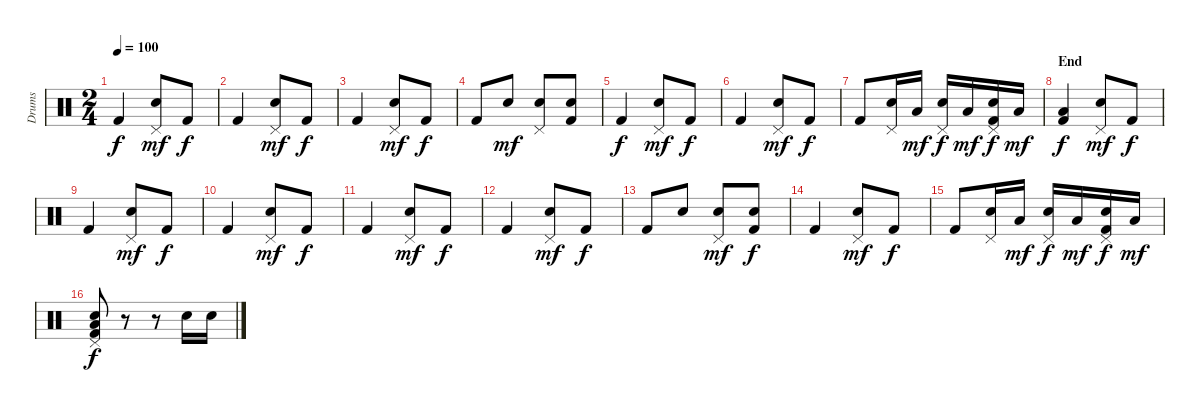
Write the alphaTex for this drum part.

\track ("Drums" "Drums") {instrument percussion}
\staff {score}
\articulation defaults
\ts (2 4)
\tempo 100
\clef neutral
\ks c "Kick (hit) 2".4{dy f}
("Pedal Hi-Hat (hit)" "Electric Snare (hit)").8{dy mf} "Kick (hit) 2".8{dy f} |
"Kick (hit) 2".4 ("Pedal Hi-Hat (hit)" "Electric Snare (hit)").8{dy mf} "Kick (hit) 2".8{dy f} |
"Kick (hit) 2".4 ("Pedal Hi-Hat (hit)" "Electric Snare (hit)").8{dy mf} "Kick (hit) 2".8{dy f} |
"Kick (hit) 2".8 "Electric Snare (hit)".8{dy mf} ("Pedal Hi-Hat (hit)" "Electric Snare (hit)").8 ("Electric Snare (hit)" "Kick (hit) 2").8 |
"Kick (hit) 2".4{dy f} ("Pedal Hi-Hat (hit)" "Electric Snare (hit)").8{dy mf} "Kick (hit) 2".8{dy f} |
"Kick (hit) 2".4 ("Pedal Hi-Hat (hit)" "Electric Snare (hit)").8{dy mf} "Kick (hit) 2".8{dy f} |
"Kick (hit) 2".8 ("Pedal Hi-Hat (hit)" "Electric Snare (hit)").16 "Low Floor Tom (hit)".16{dy mf} ("Pedal Hi-Hat (hit)" "Electric Snare (hit)").16{dy f} "Low Floor Tom (hit)".16{dy mf} ("Pedal Hi-Hat (hit)" "Electric Snare (hit)" "Kick (hit) 2").16{dy f} "Low Floor Tom (hit)".16{dy mf} |
\section ("" "End")
("Low Floor Tom (hit)" "Kick (hit) 2").4{dy f} ("Pedal Hi-Hat (hit)" "Electric Snare (hit)").8{dy mf} "Kick (hit) 2".8{dy f} |
"Kick (hit) 2".4 ("Pedal Hi-Hat (hit)" "Electric Snare (hit)").8{dy mf} "Kick (hit) 2".8{dy f} |
"Kick (hit) 2".4 ("Pedal Hi-Hat (hit)" "Electric Snare (hit)").8{dy mf} "Kick (hit) 2".8{dy f} |
"Kick (hit) 2".4 ("Pedal Hi-Hat (hit)" "Electric Snare (hit)").8{dy mf} "Kick (hit) 2".8{dy f} |
"Kick (hit) 2".4 ("Pedal Hi-Hat (hit)" "Electric Snare (hit)").8{dy mf} "Kick (hit) 2".8{dy f} |
"Kick (hit) 2".8 "Electric Snare (hit)".8 ("Pedal Hi-Hat (hit)" "Electric Snare (hit)").8{dy mf} ("Electric Snare (hit)" "Kick (hit) 2").8{dy f} |
"Kick (hit) 2".4 ("Pedal Hi-Hat (hit)" "Electric Snare (hit)").8{dy mf} "Kick (hit) 2".8{dy f} |
"Kick (hit) 2".8 ("Pedal Hi-Hat (hit)" "Electric Snare (hit)").16 "Low Floor Tom (hit)".16{dy mf} ("Pedal Hi-Hat (hit)" "Electric Snare (hit)").16{dy f} "Low Floor Tom (hit)".16{dy mf} ("Pedal Hi-Hat (hit)" "Electric Snare (hit)" "Kick (hit) 2").16{dy f} "Low Floor Tom (hit)".16{dy mf} |
("Pedal Hi-Hat (hit)" "Low Floor Tom (hit)" "Electric Snare (hit)" "Kick (hit) 2").8{dy f} r.8 r.8 "Electric Snare (hit)".16 "Electric Snare (hit)".16
